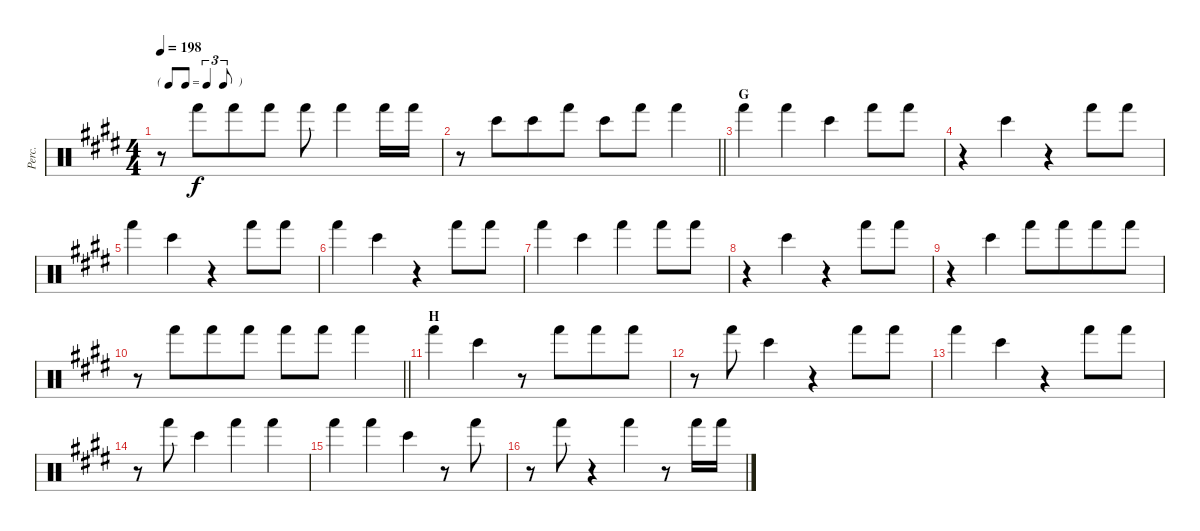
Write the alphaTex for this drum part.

\track ("Perc." "Perc.") {instrument percussion}
\staff {score}
\articulation defaults
\ts (4 4)
\tf triplet8th
\tempo 198
\clef neutral
\ks e
r.8{dy f} "Hand (hit)".8{beam merge} "Hand (hit)".8 "Hand (hit)".8 "Hand (hit)".8 "Hand (hit)".4 "Hand (hit)".16 "Hand (hit)".16 |
\barLineRight lightlight
r.8 "Bongo High (hit)".8{beam merge} "Bongo High (hit)".8 "Hand (hit)".8 "Bongo High (hit)".8 "Hand (hit)".8 "Hand (hit)".4 |
\section ("" "G")
"Hand (hit)".4 "Hand (hit)".4 "Bongo High (hit)".4 "Hand (hit)".8 "Hand (hit)".8 |
r.4 "Bongo High (hit)".4 r.4 "Hand (hit)".8 "Hand (hit)".8 |
"Hand (hit)".4 "Bongo High (hit)".4 r.4 "Hand (hit)".8 "Hand (hit)".8 |
"Hand (hit)".4 "Bongo High (hit)".4 r.4 "Hand (hit)".8 "Hand (hit)".8 |
"Hand (hit)".4 "Bongo High (hit)".4 "Hand (hit)".4 "Hand (hit)".8 "Hand (hit)".8 |
r.4 "Bongo High (hit)".4 r.4 "Hand (hit)".8 "Hand (hit)".8 |
r.4 "Bongo High (hit)".4 "Hand (hit)".8 "Hand (hit)".8{beam merge} "Hand (hit)".8 "Hand (hit)".8 |
\barLineRight lightlight
r.8 "Hand (hit)".8{beam merge} "Hand (hit)".8 "Hand (hit)".8 "Hand (hit)".8 "Hand (hit)".8 "Hand (hit)".4 |
\section ("" "H")
"Hand (hit)".4 "Bongo High (hit)".4 r.8 "Hand (hit)".8{beam merge} "Hand (hit)".8 "Hand (hit)".8 |
r.8 "Hand (hit)".8 "Bongo High (hit)".4 r.4 "Hand (hit)".8 "Hand (hit)".8 |
"Hand (hit)".4 "Bongo High (hit)".4 r.4 "Hand (hit)".8 "Hand (hit)".8 |
r.8 "Hand (hit)".8 "Bongo High (hit)".4 "Hand (hit)".4 "Hand (hit)".4 |
"Hand (hit)".4 "Hand (hit)".4 "Bongo High (hit)".4 r.8 "Hand (hit)".8 |
r.8 "Hand (hit)".8 r.4 "Hand (hit)".4 r.8 "Hand (hit)".16 "Hand (hit)".16
